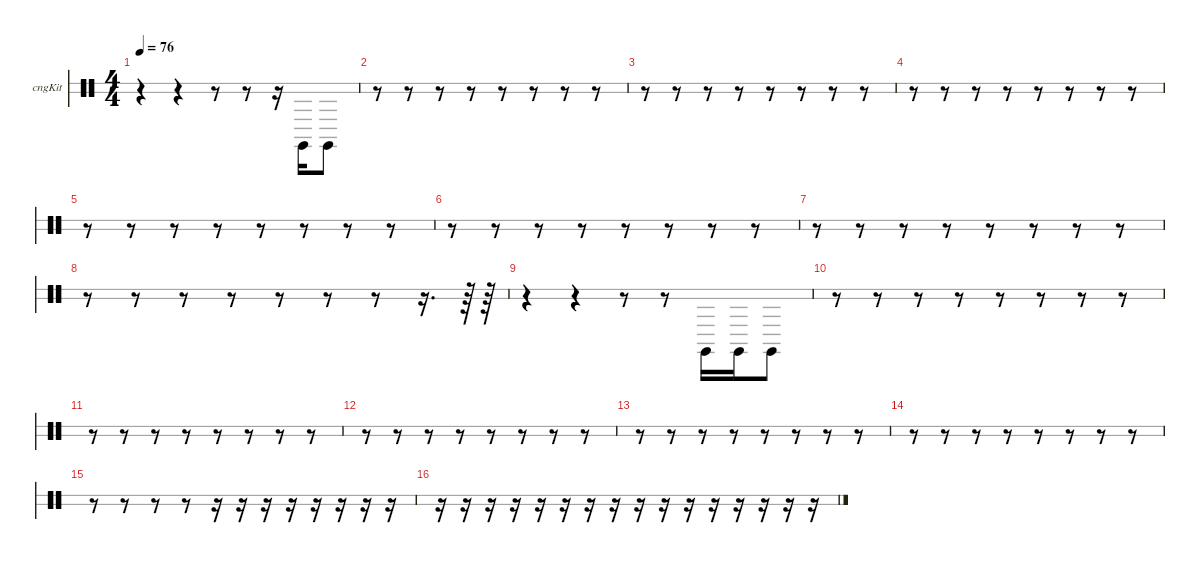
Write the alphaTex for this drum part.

\hideDynamics
\bracketExtendMode nobrackets
\firstSystemTrackNameOrientation horizontal
\otherSystemsTrackNameOrientation horizontal
\track ("Congas" "cngKit") {instrument percussion}
\staff {score 2}
\articulation defaults
\ts (4 4)
\tempo 76
\clef neutral
\ks c
r.4{dy f beam Down} r.4{beam Down} r.8{beam Down} r.8{beam Down} r.16{beam Down} "Conga high (hit)".16{beam Down} "Conga high (hit)".8{beam Down} |
r.8{beam Down} r.8{beam Down} r.8{beam Down} r.8{beam Down} r.8{beam Down} r.8{beam Down} r.8{beam Down} r.8{beam Down} |
r.8{beam Down} r.8{beam Down} r.8{beam Down} r.8{beam Down} r.8{beam Down} r.8{beam Down} r.8{beam Down} r.8{beam Down} |
r.8{beam Down} r.8{beam Down} r.8{beam Down} r.8{beam Down} r.8{beam Down} r.8{beam Down} r.8{beam Down} r.8{beam Down} |
r.8{beam Down} r.8{beam Down} r.8{beam Down} r.8{beam Down} r.8{beam Down} r.8{beam Down} r.8{beam Down} r.8{beam Down} |
r.8{beam Down} r.8{beam Down} r.8{beam Down} r.8{beam Down} r.8{beam Down} r.8{beam Down} r.8{beam Down} r.8{beam Down} |
r.8{beam Down} r.8{beam Down} r.8{beam Down} r.8{beam Down} r.8{beam Down} r.8{beam Down} r.8{beam Down} r.8{beam Down} |
r.8{beam Down} r.8{beam Down} r.8{beam Down} r.8{beam Down} r.8{beam Down} r.8{beam Down} r.8{beam Down} r.16{d beam Down} r.64{beam Down} r.64{beam Down} |
r.4{beam Down} r.4{beam Down} r.8{beam Down} r.8{beam Down} "Conga high (hit)".16{beam Down} "Conga high (hit)".16{beam Down} "Conga high (hit)".8{beam Down} |
r.8{beam Down} r.8{beam Down} r.8{beam Down} r.8{beam Down} r.8{beam Down} r.8{beam Down} r.8{beam Down} r.8{beam Down} |
r.8{beam Down} r.8{beam Down} r.8{beam Down} r.8{beam Down} r.8{beam Down} r.8{beam Down} r.8{beam Down} r.8{beam Down} |
r.8{beam Down} r.8{beam Down} r.8{beam Down} r.8{beam Down} r.8{beam Down} r.8{beam Down} r.8{beam Down} r.8{beam Down} |
r.8{beam Down} r.8{beam Down} r.8{beam Down} r.8{beam Down} r.8{beam Down} r.8{beam Down} r.8{beam Down} r.8{beam Down} |
r.8{beam Down} r.8{beam Down} r.8{beam Down} r.8{beam Down} r.8{beam Down} r.8{beam Down} r.8{beam Down} r.8{beam Down} |
r.8{beam Down} r.8{beam Down} r.8{beam Down} r.8{beam Down} r.16{beam Down} r.16{beam Down} r.16{beam Down} r.16{beam Down} r.16{beam Down} r.16{beam Down} r.16{beam Down} r.16{beam Down} |
r.16{beam Down} r.16{beam Down} r.16{beam Down} r.16{beam Down} r.16{beam Down} r.16{beam Down} r.16{beam Down} r.16{beam Down} r.16{beam Down} r.16{beam Down} r.16{beam Down} r.16{beam Down} r.16{beam Down} r.16{beam Down} r.16{beam Down} r.16{beam Down}
